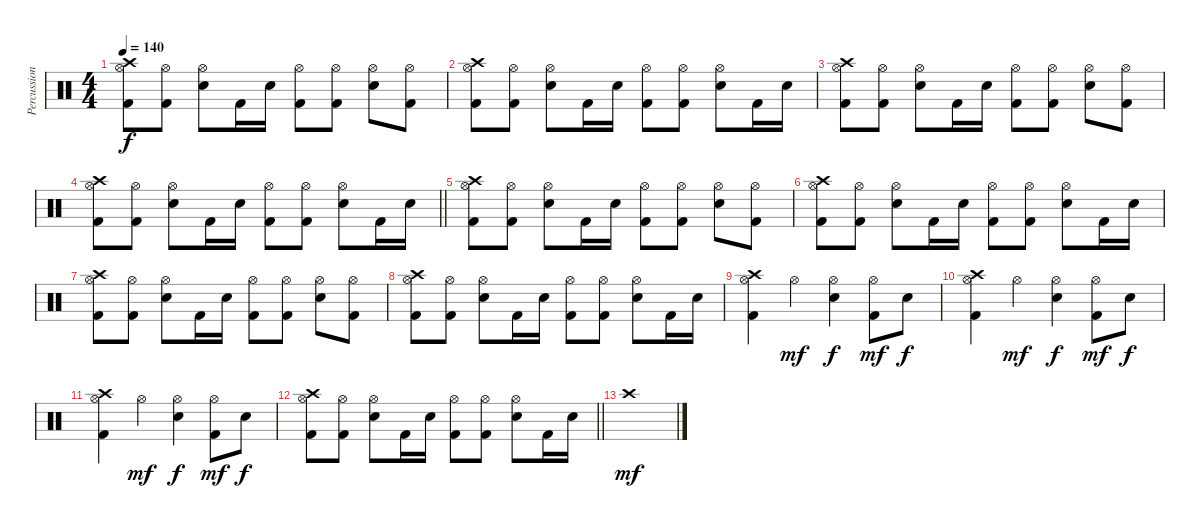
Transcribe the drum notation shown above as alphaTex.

\track ("Percussion" "Percussion") {instrument percussion}
\staff {score}
\articulation defaults
\ts (4 4)
\tempo 140
\clef neutral
\ks c
("Hi-Hat (open)" "Crash high (hit)" "Kick (hit) 2").8{dy f} ("Hi-Hat (open)" "Kick (hit) 2").8 ("Hi-Hat (open)" "Snare (hit) 2").8 "Kick (hit) 2".16 "Snare (hit) 2".16 ("Hi-Hat (open)" "Kick (hit) 2").8 ("Hi-Hat (open)" "Kick (hit) 2").8 ("Hi-Hat (open)" "Snare (hit) 2").8 ("Hi-Hat (open)" "Kick (hit) 2").8 |
("Hi-Hat (open)" "Crash high (hit)" "Kick (hit) 2").8 ("Hi-Hat (open)" "Kick (hit) 2").8 ("Hi-Hat (open)" "Snare (hit) 2").8 "Kick (hit) 2".16 "Snare (hit) 2".16 ("Hi-Hat (open)" "Kick (hit) 2").8 ("Hi-Hat (open)" "Kick (hit) 2").8 ("Hi-Hat (open)" "Snare (hit) 2").8 "Kick (hit) 2".16 "Snare (hit) 2".16 |
("Hi-Hat (open)" "Crash high (hit)" "Kick (hit) 2").8 ("Hi-Hat (open)" "Kick (hit) 2").8 ("Hi-Hat (open)" "Snare (hit) 2").8 "Kick (hit) 2".16 "Snare (hit) 2".16 ("Hi-Hat (open)" "Kick (hit) 2").8 ("Hi-Hat (open)" "Kick (hit) 2").8 ("Hi-Hat (open)" "Snare (hit) 2").8 ("Hi-Hat (open)" "Kick (hit) 2").8 |
\barLineRight lightlight
("Hi-Hat (open)" "Crash high (hit)" "Kick (hit) 2").8 ("Hi-Hat (open)" "Kick (hit) 2").8 ("Hi-Hat (open)" "Snare (hit) 2").8 "Kick (hit) 2".16 "Snare (hit) 2".16 ("Hi-Hat (open)" "Kick (hit) 2").8 ("Hi-Hat (open)" "Kick (hit) 2").8 ("Hi-Hat (open)" "Snare (hit) 2").8 "Kick (hit) 2".16 "Snare (hit) 2".16 |
("Hi-Hat (open)" "Crash high (hit)" "Kick (hit) 2").8 ("Hi-Hat (open)" "Kick (hit) 2").8 ("Hi-Hat (open)" "Snare (hit) 2").8 "Kick (hit) 2".16 "Snare (hit) 2".16 ("Hi-Hat (open)" "Kick (hit) 2").8 ("Hi-Hat (open)" "Kick (hit) 2").8 ("Hi-Hat (open)" "Snare (hit) 2").8 ("Hi-Hat (open)" "Kick (hit) 2").8 |
("Hi-Hat (open)" "Crash high (hit)" "Kick (hit) 2").8 ("Hi-Hat (open)" "Kick (hit) 2").8 ("Hi-Hat (open)" "Snare (hit) 2").8 "Kick (hit) 2".16 "Snare (hit) 2".16 ("Hi-Hat (open)" "Kick (hit) 2").8 ("Hi-Hat (open)" "Kick (hit) 2").8 ("Hi-Hat (open)" "Snare (hit) 2").8 "Kick (hit) 2".16 "Snare (hit) 2".16 |
("Hi-Hat (open)" "Crash high (hit)" "Kick (hit) 2").8 ("Hi-Hat (open)" "Kick (hit) 2").8 ("Hi-Hat (open)" "Snare (hit) 2").8 "Kick (hit) 2".16 "Snare (hit) 2".16 ("Hi-Hat (open)" "Kick (hit) 2").8 ("Hi-Hat (open)" "Kick (hit) 2").8 ("Hi-Hat (open)" "Snare (hit) 2").8 ("Hi-Hat (open)" "Kick (hit) 2").8 |
("Hi-Hat (open)" "Crash high (hit)" "Kick (hit) 2").8 ("Hi-Hat (open)" "Kick (hit) 2").8 ("Hi-Hat (open)" "Snare (hit) 2").8 "Kick (hit) 2".16 "Snare (hit) 2".16 ("Hi-Hat (open)" "Kick (hit) 2").8 ("Hi-Hat (open)" "Kick (hit) 2").8 ("Hi-Hat (open)" "Snare (hit) 2").8 "Kick (hit) 2".16 "Snare (hit) 2".16 |
("Hi-Hat (open)" "Crash high (hit)" "Kick (hit) 2").4 "Hi-Hat (open)".4{dy mf} ("Hi-Hat (open)" "Snare (hit) 2").4{dy f} ("Kick (hit) 2" "Hi-Hat (open)").8{dy mf} "Snare (hit) 2".8{dy f} |
("Hi-Hat (open)" "Crash high (hit)" "Kick (hit) 2").4 "Hi-Hat (open)".4{dy mf} ("Hi-Hat (open)" "Snare (hit) 2").4{dy f} ("Kick (hit) 2" "Hi-Hat (open)").8{dy mf} "Snare (hit) 2".8{dy f} |
("Hi-Hat (open)" "Crash high (hit)" "Kick (hit) 2").4 "Hi-Hat (open)".4{dy mf} ("Hi-Hat (open)" "Snare (hit) 2").4{dy f} ("Kick (hit) 2" "Hi-Hat (open)").8{dy mf} "Snare (hit) 2".8{dy f} |
\barLineRight lightlight
("Hi-Hat (open)" "Crash high (hit)" "Kick (hit) 2").8 ("Hi-Hat (open)" "Kick (hit) 2").8 ("Hi-Hat (open)" "Snare (hit) 2").8 "Kick (hit) 2".16 "Snare (hit) 2".16 ("Hi-Hat (open)" "Kick (hit) 2").8 ("Hi-Hat (open)" "Kick (hit) 2").8 ("Hi-Hat (open)" "Snare (hit) 2").8 "Kick (hit) 2".16 "Snare (hit) 2".16 |
"Crash high (hit)".1{dy mf}
